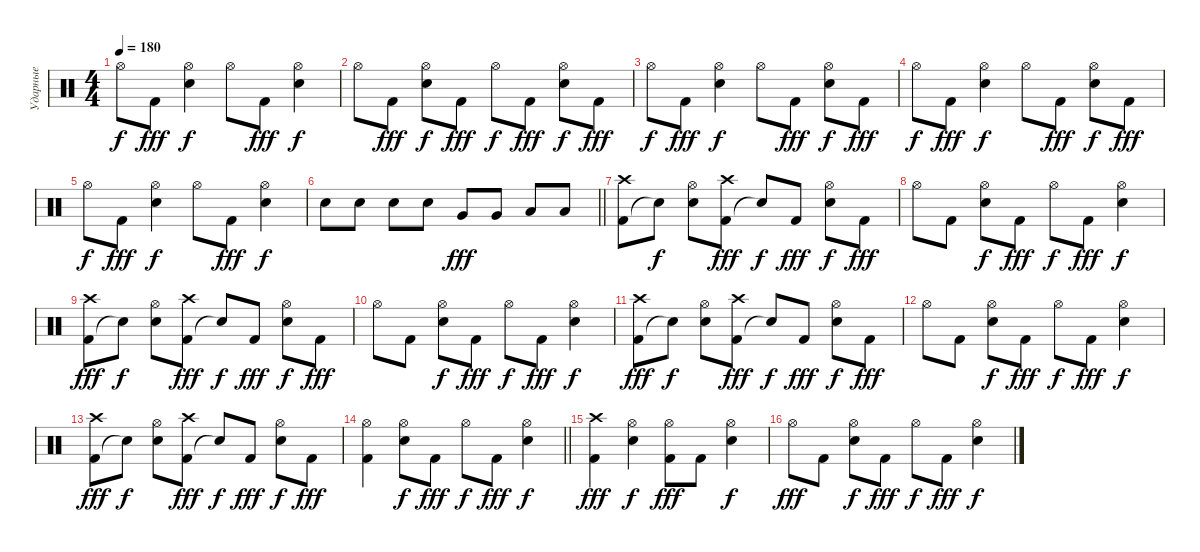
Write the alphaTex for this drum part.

\track ("Ударные" "Ударные") {instrument percussion}
\staff
\articulation defaults
\ts (4 4)
\tempo 180
\clef neutral
\ks c "Hi-Hat (open)".8{dy f} "Kick (hit) 2".8{dy fff}
("Snare (hit) 2" "Hi-Hat (open)").4{dy f} "Hi-Hat (open)".8 "Kick (hit) 2".8{dy fff} ("Snare (hit) 2" "Hi-Hat (open)").4{dy f} |
"Hi-Hat (open)".8 "Kick (hit) 2".8{dy fff} ("Snare (hit) 2" "Hi-Hat (open)").8{dy f} "Kick (hit) 2".8{dy fff} "Hi-Hat (open)".8{dy f} "Kick (hit) 2".8{dy fff} ("Snare (hit) 2" "Hi-Hat (open)").8{dy f} "Kick (hit) 2".8{dy fff} |
"Hi-Hat (open)".8{dy f} "Kick (hit) 2".8{dy fff} ("Snare (hit) 2" "Hi-Hat (open)").4{dy f} "Hi-Hat (open)".8 "Kick (hit) 2".8{dy fff} ("Snare (hit) 2" "Hi-Hat (open)").8{dy f} "Kick (hit) 2".8{dy fff} |
"Hi-Hat (open)".8{dy f} "Kick (hit) 2".8{dy fff} ("Snare (hit) 2" "Hi-Hat (open)").4{dy f} "Hi-Hat (open)".8 "Kick (hit) 2".8{dy fff} ("Snare (hit) 2" "Hi-Hat (open)").8{dy f} "Kick (hit) 2".8{dy fff} |
"Hi-Hat (open)".8{dy f} "Kick (hit) 2".8{dy fff} ("Snare (hit) 2" "Hi-Hat (open)").4{dy f} "Hi-Hat (open)".8 "Kick (hit) 2".8{dy fff} ("Snare (hit) 2" "Hi-Hat (open)").4{dy f} |
\barLineRight lightlight "Snare (hit) 2".8 "Snare (hit) 2".8 "Snare (hit) 2".8 "Snare (hit) 2".8 "Very Low Tom (hit)".8{dy fff} "Very Low Tom (hit)".8 "Low Floor Tom (hit)".8 "Low Floor Tom (hit)".8
|
("Kick (hit) 2" "Crash high (hit)").8 "Snare (hit)"{t}.8{dy f} ("Snare (hit) 2" "Hi-Hat (open)").8 ("Kick (hit) 2" "Crash high (hit)").8{dy fff} "Snare (hit)"{t}.8{dy f} "Kick (hit) 2".8{dy fff} ("Snare (hit) 2" "Hi-Hat (open)").8{dy f} "Kick (hit) 2".8{dy fff} |
"Hi-Hat (open)".8 "Kick (hit) 2".8 ("Snare (hit) 2" "Hi-Hat (open)").8{dy f} "Kick (hit) 2".8{dy fff} "Hi-Hat (open)".8{dy f} "Kick (hit) 2".8{dy fff} ("Snare (hit) 2" "Hi-Hat (open)").4{dy f} |
("Kick (hit) 2" "Crash high (hit)").8{dy fff} "Snare (hit)"{t}.8{dy f} ("Snare (hit) 2" "Hi-Hat (open)").8 ("Kick (hit) 2" "Crash high (hit)").8{dy fff} "Snare (hit)"{t}.8{dy f} "Kick (hit) 2".8{dy fff} ("Snare (hit) 2" "Hi-Hat (open)").8{dy f} "Kick (hit) 2".8{dy fff} |
"Hi-Hat (open)".8 "Kick (hit) 2".8 ("Snare (hit) 2" "Hi-Hat (open)").8{dy f} "Kick (hit) 2".8{dy fff} "Hi-Hat (open)".8{dy f} "Kick (hit) 2".8{dy fff} ("Snare (hit) 2" "Hi-Hat (open)").4{dy f} |
("Kick (hit) 2" "Crash high (hit)").8{dy fff} "Snare (hit)"{t}.8{dy f} ("Snare (hit) 2" "Hi-Hat (open)").8 ("Kick (hit) 2" "Crash high (hit)").8{dy fff} "Snare (hit)"{t}.8{dy f} "Kick (hit) 2".8{dy fff} ("Snare (hit) 2" "Hi-Hat (open)").8{dy f} "Kick (hit) 2".8{dy fff} |
"Hi-Hat (open)".8 "Kick (hit) 2".8 ("Snare (hit) 2" "Hi-Hat (open)").8{dy f} "Kick (hit) 2".8{dy fff} "Hi-Hat (open)".8{dy f} "Kick (hit) 2".8{dy fff} ("Snare (hit) 2" "Hi-Hat (open)").4{dy f} |
("Kick (hit) 2" "Crash high (hit)").8{dy fff} "Snare (hit)"{t}.8{dy f} ("Snare (hit) 2" "Hi-Hat (open)").8 ("Kick (hit) 2" "Crash high (hit)").8{dy fff} "Snare (hit)"{t}.8{dy f} "Kick (hit) 2".8{dy fff} ("Snare (hit) 2" "Hi-Hat (open)").8{dy f} "Kick (hit) 2".8{dy fff} |
\barLineRight lightlight
("Kick (hit) 2" "Hi-Hat (open)").4 ("Snare (hit) 2" "Hi-Hat (open)").8{dy f} "Kick (hit) 2".8{dy fff} "Hi-Hat (open)".8{dy f} "Kick (hit) 2".8{dy fff} ("Snare (hit) 2" "Hi-Hat (open)").4{dy f} |
("Kick (hit) 2" "Crash high (hit)").4{dy fff} ("Snare (hit) 2" "Hi-Hat (open)").4{dy f} ("Kick (hit) 2" "Hi-Hat (open)").8{dy fff} "Kick (hit) 2".8 ("Snare (hit) 2" "Hi-Hat (open)").4{dy f} |
"Hi-Hat (open)".8{dy fff} "Kick (hit) 2".8 ("Snare (hit) 2" "Hi-Hat (open)").8{dy f} "Kick (hit) 2".8{dy fff} "Hi-Hat (open)".8{dy f} "Kick (hit) 2".8{dy fff} ("Snare (hit) 2" "Hi-Hat (open)").4{dy f}
